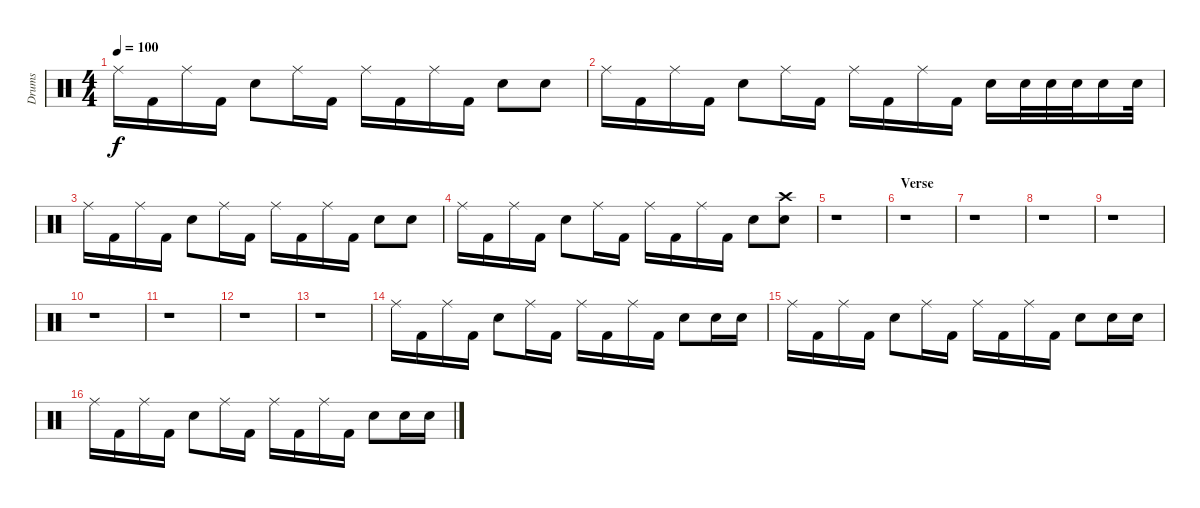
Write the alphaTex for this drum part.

\track ("Drums" "Drums") {instrument percussion}
\staff {score}
\articulation defaults
\ts (4 4)
\tempo 100
\clef neutral
\ks c "Ride (middle)".16{dy f} "Kick (hit) 2".16 "Ride (middle)".16 "Kick (hit) 2".16 "Snare (hit) 2".8 "Ride (middle)".16 "Kick (hit) 2".16 "Ride (middle)".16 "Kick (hit) 2".16 "Ride (middle)".16 "Kick (hit) 2".16 "Snare (hit) 2".8 "Snare (hit) 2".8
|
"Ride (middle)".16 "Kick (hit) 2".16 "Ride (middle)".16 "Kick (hit) 2".16 "Snare (hit) 2".8 "Ride (middle)".16 "Kick (hit) 2".16 "Ride (middle)".16 "Kick (hit) 2".16 "Ride (middle)".16 "Kick (hit) 2".16 "Snare (hit) 2".16 "Snare (hit) 2".32 "Snare (hit) 2".32 "Snare (hit) 2".32 "Snare (hit) 2".16 "Snare (hit) 2".32 |
"Ride (middle)".16 "Kick (hit) 2".16 "Ride (middle)".16 "Kick (hit) 2".16 "Snare (hit) 2".8 "Ride (middle)".16 "Kick (hit) 2".16 "Ride (middle)".16 "Kick (hit) 2".16 "Ride (middle)".16 "Kick (hit) 2".16 "Snare (hit) 2".8 "Snare (hit) 2".8 |
"Ride (middle)".16 "Kick (hit) 2".16 "Ride (middle)".16 "Kick (hit) 2".16 "Snare (hit) 2".8 "Ride (middle)".16 "Kick (hit) 2".16 "Ride (middle)".16 "Kick (hit) 2".16 "Ride (middle)".16 "Kick (hit) 2".16 "Snare (hit) 2".8 ("Crash high (hit)" "Snare (hit) 2").8 |
r.1 |
\section ("" "Verse")
r.1 |
r.1 |
r.1 |
r.1 |
r.1 |
r.1 |
r.1 |
r.1 |
"Ride (middle)".16 "Kick (hit) 2".16 "Ride (middle)".16 "Kick (hit) 2".16 "Snare (hit) 2".8 "Ride (middle)".16 "Kick (hit) 2".16 "Ride (middle)".16 "Kick (hit) 2".16 "Ride (middle)".16 "Kick (hit) 2".16 "Snare (hit) 2".8 "Snare (hit) 2".16 "Snare (hit) 2".16 |
"Ride (middle)".16 "Kick (hit) 2".16 "Ride (middle)".16 "Kick (hit) 2".16 "Snare (hit) 2".8 "Ride (middle)".16 "Kick (hit) 2".16 "Ride (middle)".16 "Kick (hit) 2".16 "Ride (middle)".16 "Kick (hit) 2".16 "Snare (hit) 2".8 "Snare (hit) 2".16 "Snare (hit) 2".16 |
"Ride (middle)".16 "Kick (hit) 2".16 "Ride (middle)".16 "Kick (hit) 2".16 "Snare (hit) 2".8 "Ride (middle)".16 "Kick (hit) 2".16 "Ride (middle)".16 "Kick (hit) 2".16 "Ride (middle)".16 "Kick (hit) 2".16 "Snare (hit) 2".8 "Snare (hit) 2".16 "Snare (hit) 2".16
